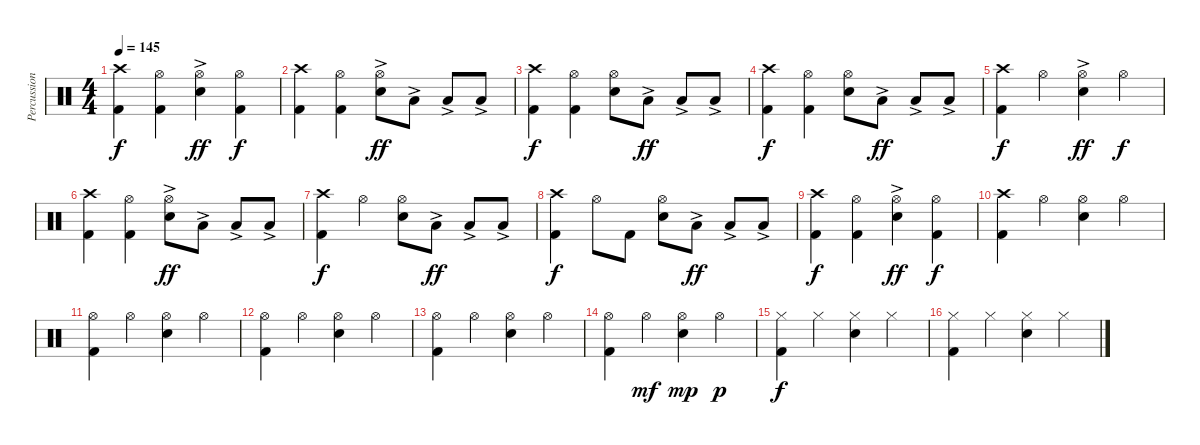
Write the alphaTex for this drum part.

\track ("Percussion" "Percussion") {instrument percussion}
\staff {score}
\articulation defaults
\ts (4 4)
\tempo 145
\clef neutral
\ks c
("Crash high (hit)" "Kick (hit) 2").4{dy f} ("Hi-Hat (open)" "Kick (hit) 2").4 ("Hi-Hat (open)" "Electric Snare (hit)"{ac}).4{dy ff} ("Hi-Hat (open)" "Kick (hit) 2").4{dy f} |
("Crash high (hit)" "Kick (hit) 2").4 ("Hi-Hat (open)" "Kick (hit) 2").4 ("Hi-Hat (open)" "Electric Snare (hit)"{ac}).8{dy ff} "Low Tom (hit)"{ac}.8 "Low Tom (hit)"{ac}.8 "Low Tom (hit)"{ac}.8 |
("Crash high (hit)" "Kick (hit) 2").4{dy f} ("Hi-Hat (open)" "Kick (hit) 2").4 ("Hi-Hat (open)" "Electric Snare (hit)").8 "Low Tom (hit)"{ac}.8{dy ff} "Low Tom (hit)"{ac}.8 "Low Tom (hit)"{ac}.8 |
("Crash high (hit)" "Kick (hit) 2").4{dy f} ("Hi-Hat (open)" "Kick (hit) 2").4 ("Hi-Hat (open)" "Electric Snare (hit)").8 "Low Tom (hit)"{ac}.8{dy ff} "Low Tom (hit)"{ac}.8 "Low Tom (hit)"{ac}.8 |
("Crash high (hit)" "Kick (hit) 2").4{dy f} "Hi-Hat (open)".4 ("Hi-Hat (open)" "Electric Snare (hit)"{ac}).4{dy ff} "Hi-Hat (open)".4{dy f} |
("Crash high (hit)" "Kick (hit) 2").4 ("Hi-Hat (open)" "Kick (hit) 2").4 ("Hi-Hat (open)" "Electric Snare (hit)"{ac}).8{dy ff} "Low Tom (hit)"{ac}.8 "Low Tom (hit)"{ac}.8 "Low Tom (hit)"{ac}.8 |
("Crash high (hit)" "Kick (hit) 2").4{dy f} "Hi-Hat (open)".4 ("Hi-Hat (open)" "Electric Snare (hit)").8 "Low Tom (hit)"{ac}.8{dy ff} "Low Tom (hit)"{ac}.8 "Low Tom (hit)"{ac}.8 |
("Crash high (hit)" "Kick (hit) 2").4{dy f} "Hi-Hat (open)".8 "Kick (hit) 2".8 ("Hi-Hat (open)" "Electric Snare (hit)").8 "Low Tom (hit)"{ac}.8{dy ff} "Low Tom (hit)"{ac}.8 "Low Tom (hit)"{ac}.8 |
("Crash high (hit)" "Kick (hit) 2").4{dy f} ("Hi-Hat (open)" "Kick (hit) 2").4 ("Hi-Hat (open)" "Electric Snare (hit)"{ac}).4{dy ff} ("Hi-Hat (open)" "Kick (hit) 2").4{dy f} |
("Crash high (hit)" "Kick (hit) 2").4 "Hi-Hat (open)".4 ("Hi-Hat (open)" "Electric Snare (hit)").4 "Hi-Hat (open)".4 |
("Hi-Hat (open)" "Kick (hit) 2").4 "Hi-Hat (open)".4 ("Hi-Hat (open)" "Electric Snare (hit)").4 "Hi-Hat (open)".4 |
("Hi-Hat (open)" "Kick (hit) 2").4 "Hi-Hat (open)".4 ("Hi-Hat (open)" "Electric Snare (hit)").4 "Hi-Hat (open)".4 |
("Hi-Hat (open)" "Kick (hit) 2").4 "Hi-Hat (open)".4 ("Hi-Hat (open)" "Electric Snare (hit)").4 "Hi-Hat (open)".4 |
("Hi-Hat (open)" "Kick (hit) 2").4 "Hi-Hat (open)".4{dy mf} ("Hi-Hat (open)" "Electric Snare (hit)").4{dy mp} "Hi-Hat (open)".4{dy p} |
("Hi-Hat (closed)" "Kick (hit) 2").4{dy f} "Hi-Hat (closed)".4 ("Hi-Hat (closed)" "Electric Snare (hit)").4 "Hi-Hat (closed)".4 |
("Hi-Hat (closed)" "Kick (hit) 2").4 "Hi-Hat (closed)".4 ("Hi-Hat (closed)" "Electric Snare (hit)").4 "Hi-Hat (closed)".4
